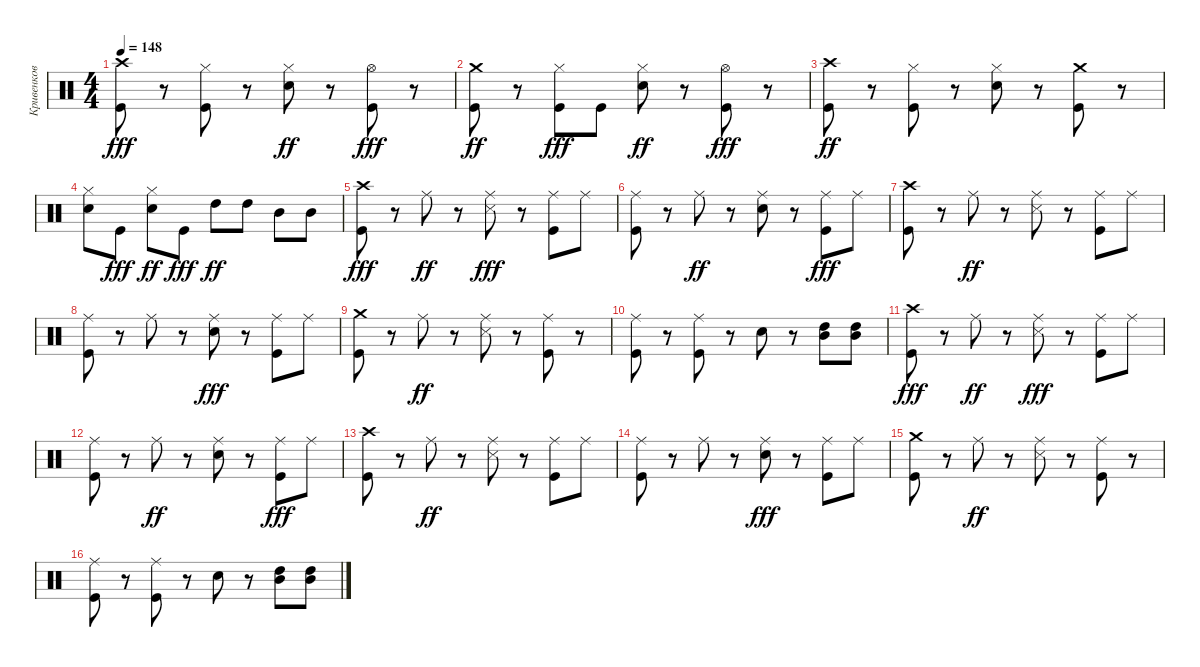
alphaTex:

\track ("Кривенков" "Кривенков") {instrument percussion}
\staff {score}
\articulation defaults
\ts (4 4)
\tempo 148
\clef neutral
\ks c
("Crash high (hit)" "Kick (hit)").8{dy fff} r.8 ("Hi-Hat (closed)" "Kick (hit)").8 r.8 ("Hi-Hat (closed)" "Snare (hit) 2").8{dy ff} r.8 ("Hi-Hat (open)" "Kick (hit)").8{dy fff} r.8 |
("Kick (hit)" "Crash medium (hit)").8{dy ff} r.8 ("Hi-Hat (closed)" "Kick (hit)").8{dy fff} "Kick (hit)".8 ("Hi-Hat (closed)" "Snare (hit) 2").8{dy ff} r.8 ("Hi-Hat (open)" "Kick (hit)").8{dy fff} r.8 |
("Kick (hit)" "Crash high (hit)").8{dy ff} r.8 ("Kick (hit)" "Hi-Hat (closed)").8 r.8 ("Snare (hit) 2" "Hi-Hat (closed)").8 r.8 ("Kick (hit)" "Crash medium (hit)").8 r.8 |
("Hi-Hat (closed)" "Snare (hit) 2").8 "Kick (hit)".8{dy fff} ("Hi-Hat (closed)" "Snare (hit) 2").8{dy ff} "Kick (hit)".8{dy fff} "High Tom (hit)".8{dy ff} "High Tom (hit)".8 "Mid Tom (hit)".8 "Mid Tom (hit)".8 |
("Kick (hit)" "Crash high (hit)").8{dy fff} r.8 "Ride (middle)".8{dy ff} r.8 ("Snare (side stick) 3" "Ride (middle)").8{dy fff} r.8 ("Kick (hit)" "Ride (middle)").8 "Ride (middle)".8 |
("Kick (hit)" "Ride (middle)").8 r.8 "Ride (middle)".8{dy ff} r.8 ("Ride (middle)" "Snare (hit) 2").8 r.8 ("Kick (hit)" "Ride (middle)").8{dy fff} "Ride (middle)".8 |
("Kick (hit)" "Crash high (hit)").8 r.8 "Ride (middle)".8{dy ff} r.8 ("Ride (middle)" "Snare (side stick) 3").8 r.8 ("Kick (hit)" "Ride (middle)").8 "Ride (middle)".8 |
("Kick (hit)" "Ride (middle)").8 r.8 "Ride (middle)".8 r.8 ("Ride (middle)" "Snare (hit) 2").8{dy fff} r.8 ("Ride (middle)" "Kick (hit)").8 "Ride (middle)".8 |
("Crash medium (hit)" "Kick (hit)").8 r.8 "Ride (middle)".8{dy ff} r.8 ("Snare (side stick) 3" "Ride (middle)").8 r.8 ("Kick (hit)" "Ride (middle)").8 r.8 |
("Kick (hit)" "Ride (middle)").8 r.8 ("Kick (hit)" "Ride (middle)").8 r.8 "Snare (hit) 2".8 r.8 ("Mid Tom (hit)" "High Tom (hit)").8 ("Mid Tom (hit)" "High Tom (hit)").8 |
("Kick (hit)" "Crash high (hit)").8{dy fff} r.8 "Ride (middle)".8{dy ff} r.8 ("Snare (side stick) 3" "Ride (middle)").8{dy fff} r.8 ("Kick (hit)" "Ride (middle)").8 "Ride (middle)".8 |
("Kick (hit)" "Ride (middle)").8 r.8 "Ride (middle)".8{dy ff} r.8 ("Ride (middle)" "Snare (hit) 2").8 r.8 ("Kick (hit)" "Ride (middle)").8{dy fff} "Ride (middle)".8 |
("Kick (hit)" "Crash high (hit)").8 r.8 "Ride (middle)".8{dy ff} r.8 ("Ride (middle)" "Snare (side stick) 3").8 r.8 ("Kick (hit)" "Ride (middle)").8 "Ride (middle)".8 |
("Kick (hit)" "Ride (middle)").8 r.8 "Ride (middle)".8 r.8 ("Ride (middle)" "Snare (hit) 2").8{dy fff} r.8 ("Ride (middle)" "Kick (hit)").8 "Ride (middle)".8 |
("Crash medium (hit)" "Kick (hit)").8 r.8 "Ride (middle)".8{dy ff} r.8 ("Snare (side stick) 3" "Ride (middle)").8 r.8 ("Kick (hit)" "Ride (middle)").8 r.8 |
("Kick (hit)" "Ride (middle)").8 r.8 ("Kick (hit)" "Ride (middle)").8 r.8 "Snare (hit) 2".8 r.8 ("Mid Tom (hit)" "High Tom (hit)").8 ("Mid Tom (hit)" "High Tom (hit)").8
